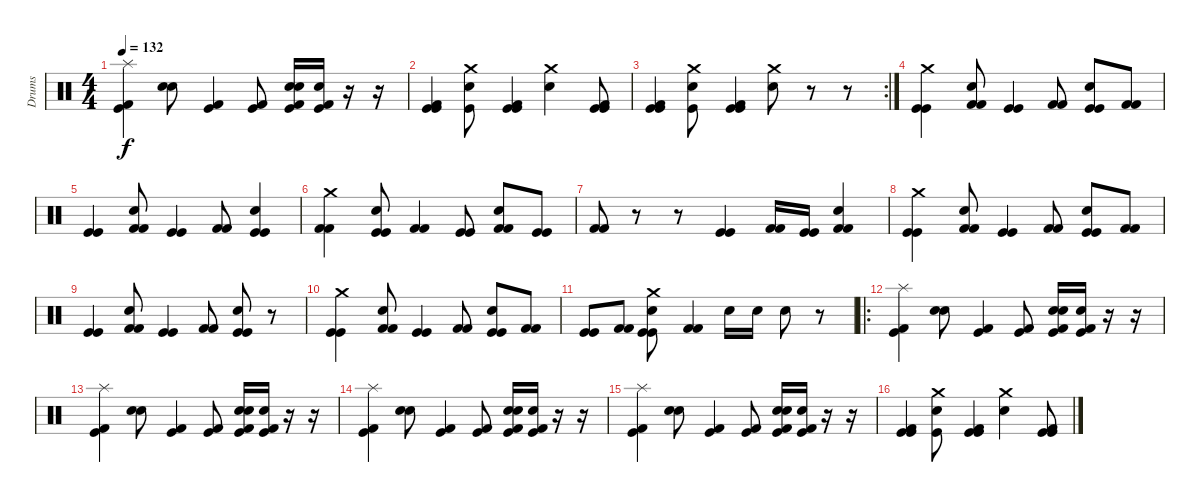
\track ("Drums" "Drums") {instrument percussion}
\staff {score}
\articulation defaults
\ts (4 4)
\tempo 132
\clef neutral
\ks c
("Splash (hit)" "Kick (hit)" "Kick (hit) 2").4{dy f} ("Electric Snare (hit)" "Electric Snare (hit)").8 ("Kick (hit)" "Kick (hit) 2").4 ("Kick (hit)" "Kick (hit) 2").8 ("Electric Snare (hit)" "Electric Snare (hit)" "Kick (hit) 2" "Kick (hit)").16 ("Electric Snare (hit)" "Kick (hit) 2" "Kick (hit)").16 r.16 r.16 |
("Kick (hit)" "Kick (hit) 2" "Kick (hit)").4 ("Crash medium (hit)" "Electric Snare (hit)" "Kick (hit)").8 ("Kick (hit)" "Kick (hit) 2" "Kick (hit)").4 ("Crash medium (hit)" "Electric Snare (hit)").4 ("Kick (hit)" "Kick (hit) 2" "Kick (hit)").8 |
\rc 2
("Kick (hit)" "Kick (hit) 2" "Kick (hit)").4 ("Crash medium (hit)" "Electric Snare (hit)" "Kick (hit)").8 ("Kick (hit)" "Kick (hit) 2" "Kick (hit)").4 ("Crash medium (hit)" "Electric Snare (hit)").8 r.8 r.8 |
("Crash medium (hit)" "Kick (hit)" "Kick (hit)").4 ("Electric Snare (hit)" "Kick (hit) 2" "Kick (hit) 2").8 ("Kick (hit)" "Kick (hit)").4 ("Kick (hit) 2" "Kick (hit) 2").8 ("Electric Snare (hit)" "Kick (hit)" "Kick (hit)").8 ("Kick (hit) 2" "Kick (hit) 2").8 |
("Kick (hit)" "Kick (hit)").4 ("Electric Snare (hit)" "Kick (hit) 2" "Kick (hit) 2").8 ("Kick (hit)" "Kick (hit)").4 ("Kick (hit) 2" "Kick (hit) 2").8 ("Electric Snare (hit)" "Kick (hit)" "Kick (hit)").4 |
("Crash medium (hit)" "Kick (hit) 2" "Kick (hit) 2").4 ("Electric Snare (hit)" "Kick (hit)" "Kick (hit)").8 ("Kick (hit) 2" "Kick (hit) 2").4 ("Kick (hit)" "Kick (hit)").8 ("Electric Snare (hit)" "Kick (hit) 2" "Kick (hit) 2").8 ("Kick (hit)" "Kick (hit)").8 |
("Kick (hit) 2" "Kick (hit) 2").8 r.8 r.8 ("Kick (hit)" "Kick (hit)").4 ("Kick (hit) 2" "Kick (hit) 2").16 ("Kick (hit)" "Kick (hit)").16 ("Electric Snare (hit)" "Kick (hit) 2" "Kick (hit) 2").4 |
("Crash medium (hit)" "Kick (hit)" "Kick (hit)").4 ("Electric Snare (hit)" "Kick (hit) 2" "Kick (hit) 2").8 ("Kick (hit)" "Kick (hit)").4 ("Kick (hit) 2" "Kick (hit) 2").8 ("Electric Snare (hit)" "Kick (hit)" "Kick (hit)").8 ("Kick (hit) 2" "Kick (hit) 2").8 |
("Kick (hit)" "Kick (hit)").4 ("Electric Snare (hit)" "Kick (hit) 2" "Kick (hit) 2").8 ("Kick (hit)" "Kick (hit)").4 ("Kick (hit) 2" "Kick (hit) 2").8 ("Electric Snare (hit)" "Kick (hit)" "Kick (hit)").8 r.8 |
("Crash medium (hit)" "Kick (hit)" "Kick (hit)").4 ("Electric Snare (hit)" "Kick (hit) 2" "Kick (hit) 2").8 ("Kick (hit)" "Kick (hit)").4 ("Kick (hit) 2" "Kick (hit) 2").8 ("Electric Snare (hit)" "Kick (hit)" "Kick (hit)").8 ("Kick (hit) 2" "Kick (hit) 2").8 |
("Kick (hit)" "Kick (hit)").8 ("Kick (hit) 2" "Kick (hit) 2").8 ("Crash medium (hit)" "Electric Snare (hit)" "Kick (hit)" "Kick (hit)").8 ("Kick (hit) 2" "Kick (hit) 2").4 "Electric Snare (hit)".16 "Electric Snare (hit)".16 "Electric Snare (hit)".8 r.8 |
\ro
("Splash (hit)" "Kick (hit)" "Kick (hit) 2").4 ("Electric Snare (hit)" "Electric Snare (hit)").8 ("Kick (hit)" "Kick (hit) 2").4 ("Kick (hit)" "Kick (hit) 2").8 ("Electric Snare (hit)" "Electric Snare (hit)" "Kick (hit) 2" "Kick (hit)").16 ("Electric Snare (hit)" "Kick (hit) 2" "Kick (hit)").16 r.16 r.16 |
("Splash (hit)" "Kick (hit)" "Kick (hit) 2").4 ("Electric Snare (hit)" "Electric Snare (hit)").8 ("Kick (hit)" "Kick (hit) 2").4 ("Kick (hit)" "Kick (hit) 2").8 ("Electric Snare (hit)" "Electric Snare (hit)" "Kick (hit) 2" "Kick (hit)").16 ("Electric Snare (hit)" "Kick (hit) 2" "Kick (hit)").16 r.16 r.16 |
("Splash (hit)" "Kick (hit)" "Kick (hit) 2").4 ("Electric Snare (hit)" "Electric Snare (hit)").8 ("Kick (hit)" "Kick (hit) 2").4 ("Kick (hit)" "Kick (hit) 2").8 ("Electric Snare (hit)" "Electric Snare (hit)" "Kick (hit) 2" "Kick (hit)").16 ("Electric Snare (hit)" "Kick (hit) 2" "Kick (hit)").16 r.16 r.16 |
("Splash (hit)" "Kick (hit)" "Kick (hit) 2").4 ("Electric Snare (hit)" "Electric Snare (hit)").8 ("Kick (hit)" "Kick (hit) 2").4 ("Kick (hit)" "Kick (hit) 2").8 ("Electric Snare (hit)" "Electric Snare (hit)" "Kick (hit) 2" "Kick (hit)").16 ("Electric Snare (hit)" "Kick (hit) 2" "Kick (hit)").16 r.16 r.16 |
("Kick (hit)" "Kick (hit) 2" "Kick (hit)").4 ("Crash medium (hit)" "Electric Snare (hit)" "Kick (hit)").8 ("Kick (hit)" "Kick (hit) 2" "Kick (hit)").4 ("Crash medium (hit)" "Electric Snare (hit)").4 ("Kick (hit)" "Kick (hit) 2" "Kick (hit)").8
